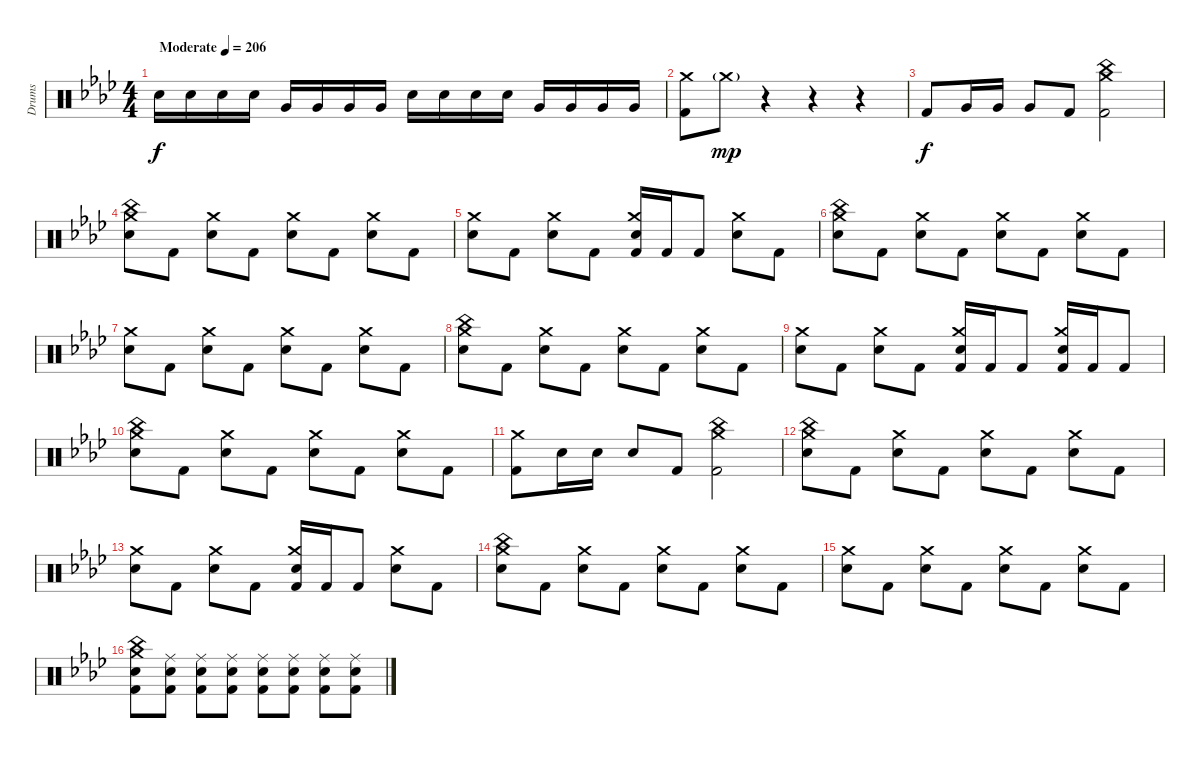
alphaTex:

\track ("Drums" "Drums") {instrument percussion}
\staff {score}
\articulation defaults
\ts (4 4)
\tempo (206 "Moderate")
\clef neutral
\ks fminor "Electric Snare (hit)".16{dy f} "Electric Snare (hit)".16 "Electric Snare (hit)".16 "Electric Snare (hit)".16 "Very Low Tom (hit)".16 "Very Low Tom (hit)".16 "Very Low Tom (hit)".16 "Very Low Tom (hit)".16 "Electric Snare (hit)".16 "Electric Snare (hit)".16 "Electric Snare (hit)".16 "Electric Snare (hit)".16 "Very Low Tom (hit)".16 "Very Low Tom (hit)".16 "Very Low Tom (hit)".16 "Very Low Tom (hit)".16
|
("Crash medium (hit)" "Kick (hit) 2").8 "Crash medium (hit)"{g}.8{dy mp} r.4 r.4 r.4 |
"Kick (hit) 2".8{dy f} "Very Low Tom (hit)".16 "Very Low Tom (hit)".16 "Very Low Tom (hit)".8 "Kick (hit) 2".8 ("Crash medium (hit)" "China (hit)" "Kick (hit) 2").2 |
("Crash medium (hit)" "China (hit)" "Electric Snare (hit)").8 "Kick (hit) 2".8 ("Crash medium (hit)" "Electric Snare (hit)").8 "Kick (hit) 2".8 ("Crash medium (hit)" "Electric Snare (hit)").8 "Kick (hit) 2".8 ("Crash medium (hit)" "Electric Snare (hit)").8 "Kick (hit) 2".8 |
("Crash medium (hit)" "Electric Snare (hit)").8 "Kick (hit) 2".8 ("Crash medium (hit)" "Electric Snare (hit)").8 "Kick (hit) 2".8 ("Crash medium (hit)" "Electric Snare (hit)" "Kick (hit) 2").16 "Kick (hit) 2".16 "Kick (hit) 2".8 ("Crash medium (hit)" "Electric Snare (hit)").8 "Kick (hit) 2".8 |
("Crash medium (hit)" "China (hit)" "Electric Snare (hit)").8 "Kick (hit) 2".8 ("Crash medium (hit)" "Electric Snare (hit)").8 "Kick (hit) 2".8 ("Crash medium (hit)" "Electric Snare (hit)").8 "Kick (hit) 2".8 ("Crash medium (hit)" "Electric Snare (hit)").8 "Kick (hit) 2".8 |
("Crash medium (hit)" "Electric Snare (hit)").8 "Kick (hit) 2".8 ("Crash medium (hit)" "Electric Snare (hit)").8 "Kick (hit) 2".8 ("Crash medium (hit)" "Electric Snare (hit)").8 "Kick (hit) 2".8 ("Crash medium (hit)" "Electric Snare (hit)").8 "Kick (hit) 2".8 |
("Crash medium (hit)" "China (hit)" "Electric Snare (hit)").8 "Kick (hit) 2".8 ("Crash medium (hit)" "Electric Snare (hit)").8 "Kick (hit) 2".8 ("Crash medium (hit)" "Electric Snare (hit)").8 "Kick (hit) 2".8 ("Crash medium (hit)" "Electric Snare (hit)").8 "Kick (hit) 2".8 |
("Crash medium (hit)" "Electric Snare (hit)").8 "Kick (hit) 2".8 ("Crash medium (hit)" "Electric Snare (hit)").8 "Kick (hit) 2".8 ("Crash medium (hit)" "Electric Snare (hit)" "Kick (hit) 2").16 "Kick (hit) 2".16 "Kick (hit) 2".8 ("Crash medium (hit)" "Electric Snare (hit)" "Kick (hit) 2").16 "Kick (hit) 2".16 "Kick (hit) 2".8 |
("Crash medium (hit)" "China (hit)" "Electric Snare (hit)").8 "Kick (hit) 2".8 ("Crash medium (hit)" "Electric Snare (hit)").8 "Kick (hit) 2".8 ("Crash medium (hit)" "Electric Snare (hit)").8 "Kick (hit) 2".8 ("Crash medium (hit)" "Electric Snare (hit)").8 "Kick (hit) 2".8 |
("Crash medium (hit)" "Kick (hit) 2").8 "Electric Snare (hit)".16 "Electric Snare (hit)".16 "Electric Snare (hit)".8 "Kick (hit) 2".8 ("Crash medium (hit)" "China (hit)" "Kick (hit) 2").2 |
("Crash medium (hit)" "China (hit)" "Electric Snare (hit)").8 "Kick (hit) 2".8 ("Crash medium (hit)" "Electric Snare (hit)").8 "Kick (hit) 2".8 ("Crash medium (hit)" "Electric Snare (hit)").8 "Kick (hit) 2".8 ("Crash medium (hit)" "Electric Snare (hit)").8 "Kick (hit) 2".8 |
("Crash medium (hit)" "Electric Snare (hit)").8 "Kick (hit) 2".8 ("Crash medium (hit)" "Electric Snare (hit)").8 "Kick (hit) 2".8 ("Crash medium (hit)" "Electric Snare (hit)" "Kick (hit) 2").16 "Kick (hit) 2".16 "Kick (hit) 2".8 ("Crash medium (hit)" "Electric Snare (hit)").8 "Kick (hit) 2".8 |
("Crash medium (hit)" "China (hit)" "Electric Snare (hit)").8 "Kick (hit) 2".8 ("Crash medium (hit)" "Electric Snare (hit)").8 "Kick (hit) 2".8 ("Crash medium (hit)" "Electric Snare (hit)").8 "Kick (hit) 2".8 ("Crash medium (hit)" "Electric Snare (hit)").8 "Kick (hit) 2".8 |
("Crash medium (hit)" "Electric Snare (hit)").8 "Kick (hit) 2".8 ("Crash medium (hit)" "Electric Snare (hit)").8 "Kick (hit) 2".8 ("Crash medium (hit)" "Electric Snare (hit)").8 "Kick (hit) 2".8 ("Crash medium (hit)" "Electric Snare (hit)").8 "Kick (hit) 2".8 |
("Crash medium (hit)" "China (hit)" "Electric Snare (hit)" "Kick (hit) 2").8 ("Ride (middle)" "Electric Snare (hit)" "Kick (hit) 2").8 ("Ride (middle)" "Electric Snare (hit)" "Kick (hit) 2").8 ("Ride (middle)" "Electric Snare (hit)" "Kick (hit) 2").8 ("Ride (middle)" "Electric Snare (hit)" "Kick (hit) 2").8 ("Ride (middle)" "Electric Snare (hit)" "Kick (hit) 2").8 ("Ride (middle)" "Electric Snare (hit)" "Kick (hit) 2").8 ("Ride (middle)" "Electric Snare (hit)" "Kick (hit) 2").8
